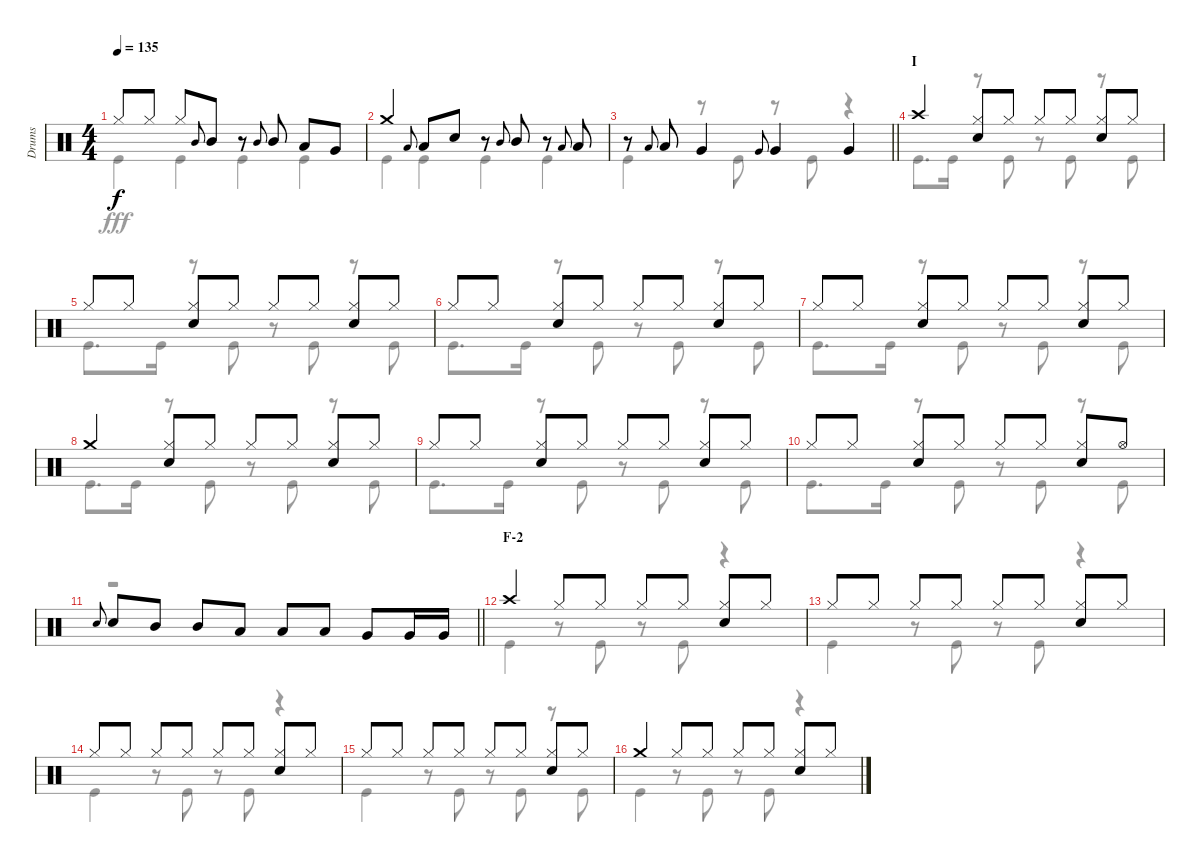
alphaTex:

\track ("Drums" "Drums") {instrument percussion}
\staff {score}
\articulation defaults
\voice
\ts (4 4)
\tempo 135
\clef neutral
\ks c "Hi-Hat (closed)".8{dy f} "Hi-Hat (closed)".8 "Hi-Hat (closed)".8 "Mid Tom (hit)".8{gr onbeat} "Mid Tom (hit)".8
r.8 "Mid Tom (hit)".8{gr onbeat} "Mid Tom (hit)".8 "Low Tom (hit)".8 "Very Low Tom (hit)".8 |
"Crash medium (hit)".4 "Low Tom (hit)".8{gr onbeat} "Low Tom (hit)".8 "Snare (hit) 2".8 r.8 "Mid Tom (hit)".8{gr onbeat} "Mid Tom (hit)".8 r.8 "Low Tom (hit)".8{gr onbeat} "Low Tom (hit)".8 |
\barLineRight lightlight
r.8 "Low Tom (hit)".8{gr onbeat} "Low Tom (hit)".8 "Very Low Tom (hit)".4 "Very Low Tom (hit)".8{gr onbeat} "Very Low Tom (hit)".4 "Very Low Tom (hit)".4 |
\section ("" "I")
"Crash high (hit)".4 ("Hi-Hat (closed)" "Snare (hit) 2").8 "Hi-Hat (closed)".8 "Hi-Hat (closed)".8 "Hi-Hat (closed)".8 ("Hi-Hat (closed)" "Snare (hit) 2").8 "Hi-Hat (closed)".8 |
"Hi-Hat (closed)".8 "Hi-Hat (closed)".8 ("Hi-Hat (closed)" "Snare (hit) 2").8 "Hi-Hat (closed)".8 "Hi-Hat (closed)".8 "Hi-Hat (closed)".8 ("Hi-Hat (closed)" "Snare (hit) 2").8 "Hi-Hat (closed)".8 |
"Hi-Hat (closed)".8 "Hi-Hat (closed)".8 ("Hi-Hat (closed)" "Snare (hit) 2").8 "Hi-Hat (closed)".8 "Hi-Hat (closed)".8 "Hi-Hat (closed)".8 ("Hi-Hat (closed)" "Snare (hit) 2").8 "Hi-Hat (closed)".8 |
"Hi-Hat (closed)".8 "Hi-Hat (closed)".8 ("Hi-Hat (closed)" "Snare (hit) 2").8 "Hi-Hat (closed)".8 "Hi-Hat (closed)".8 "Hi-Hat (closed)".8 ("Hi-Hat (closed)" "Snare (hit) 2").8 "Hi-Hat (closed)".8 |
"Crash medium (hit)".4 ("Hi-Hat (closed)" "Snare (hit) 2").8 "Hi-Hat (closed)".8 "Hi-Hat (closed)".8 "Hi-Hat (closed)".8 ("Hi-Hat (closed)" "Snare (hit) 2").8 "Hi-Hat (closed)".8 |
"Hi-Hat (closed)".8 "Hi-Hat (closed)".8 ("Hi-Hat (closed)" "Snare (hit) 2").8 "Hi-Hat (closed)".8 "Hi-Hat (closed)".8 "Hi-Hat (closed)".8 ("Hi-Hat (closed)" "Snare (hit) 2").8 "Hi-Hat (closed)".8 |
"Hi-Hat (closed)".8 "Hi-Hat (closed)".8 ("Hi-Hat (closed)" "Snare (hit) 2").8 "Hi-Hat (closed)".8 "Hi-Hat (closed)".8 "Hi-Hat (closed)".8 ("Hi-Hat (closed)" "Snare (hit) 2").8 "Hi-Hat (open)".8 |
\barLineRight lightlight "Snare (hit) 2".8{gr onbeat} "Snare (hit) 2".8 "Mid Tom (hit)".8 "Mid Tom (hit)".8 "Low Tom (hit)".8 "Low Tom (hit)".8 "Low Tom (hit)".8 "Very Low Tom (hit)".8 "Very Low Tom (hit)".16 "Very Low Tom (hit)".16
|
\section ("" "F-2")
"Crash high (hit)".4 "Hi-Hat (closed)".8 "Hi-Hat (closed)".8 "Hi-Hat (closed)".8 "Hi-Hat (closed)".8 ("Hi-Hat (closed)" "Snare (hit) 2").8 "Hi-Hat (closed)".8 |
"Hi-Hat (closed)".8 "Hi-Hat (closed)".8 "Hi-Hat (closed)".8 "Hi-Hat (closed)".8 "Hi-Hat (closed)".8 "Hi-Hat (closed)".8 ("Hi-Hat (closed)" "Snare (hit) 2").8 "Hi-Hat (closed)".8 |
"Hi-Hat (closed)".8 "Hi-Hat (closed)".8 "Hi-Hat (closed)".8 "Hi-Hat (closed)".8 "Hi-Hat (closed)".8 "Hi-Hat (closed)".8 ("Hi-Hat (closed)" "Snare (hit) 2").8 "Hi-Hat (closed)".8 |
"Hi-Hat (closed)".8 "Hi-Hat (closed)".8 "Hi-Hat (closed)".8 "Hi-Hat (closed)".8 "Hi-Hat (closed)".8 "Hi-Hat (closed)".8 ("Hi-Hat (closed)" "Snare (hit) 2").8 "Hi-Hat (closed)".8 |
"Crash medium (hit)".4 "Hi-Hat (closed)".8 "Hi-Hat (closed)".8 "Hi-Hat (closed)".8 "Hi-Hat (closed)".8 ("Hi-Hat (closed)" "Snare (hit) 2").8 "Hi-Hat (closed)".8
\voice
\clef neutral
\ottava regular
\simile none
\ks c "Kick (hit)".4{dy fff} "Kick (hit)".4 "Kick (hit)".4 "Kick (hit)".4
|
"Kick (hit)".4 "Kick (hit)".4 "Kick (hit)".4 "Kick (hit)".4 |
\barLineRight lightlight "Kick (hit)".4
r.8 "Kick (hit)".8 r.8 "Kick (hit)".8 r.4 |
"Kick (hit)".8{d} "Kick (hit)".16 r.8 "Kick (hit)".8 r.8 "Kick (hit)".8 r.8 "Kick (hit)".8 |
"Kick (hit)".8{d} "Kick (hit)".16 r.8 "Kick (hit)".8 r.8 "Kick (hit)".8 r.8 "Kick (hit)".8 |
"Kick (hit)".8{d} "Kick (hit)".16 r.8 "Kick (hit)".8 r.8 "Kick (hit)".8 r.8 "Kick (hit)".8 |
"Kick (hit)".8{d} "Kick (hit)".16 r.8 "Kick (hit)".8 r.8 "Kick (hit)".8 r.8 "Kick (hit)".8 |
"Kick (hit)".8{d} "Kick (hit)".16 r.8 "Kick (hit)".8 r.8 "Kick (hit)".8 r.8 "Kick (hit)".8 |
"Kick (hit)".8{d} "Kick (hit)".16 r.8 "Kick (hit)".8 r.8 "Kick (hit)".8 r.8 "Kick (hit)".8 |
"Kick (hit)".8{d} "Kick (hit)".16 r.8 "Kick (hit)".8 r.8 "Kick (hit)".8 r.8 "Kick (hit)".8 |
\barLineRight lightlight
r.1 |
"Kick (hit)".4 r.8 "Kick (hit)".8 r.8 "Kick (hit)".8 r.4 |
"Kick (hit)".4 r.8 "Kick (hit)".8 r.8 "Kick (hit)".8 r.4 |
"Kick (hit)".4 r.8 "Kick (hit)".8 r.8 "Kick (hit)".8 r.4 |
"Kick (hit)".4 r.8 "Kick (hit)".8 r.8 "Kick (hit)".8 r.8 "Kick (hit)".8 |
"Kick (hit)".4 r.8 "Kick (hit)".8 r.8 "Kick (hit)".8 r.4
